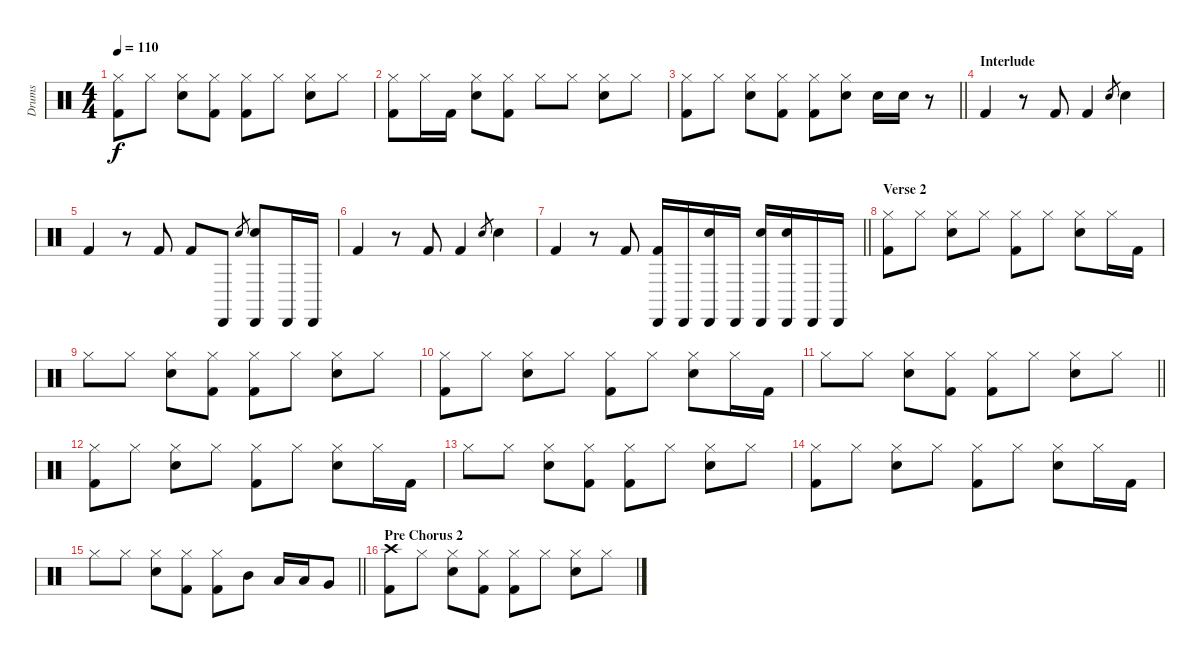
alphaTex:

\track ("Drums" "Drums") {instrument percussion}
\staff {score}
\articulation defaults
\ts (4 4)
\tempo 110
\clef neutral
\ks c
("Hi-Hat (closed)" "Kick (hit) 2").8{dy f} "Hi-Hat (closed)".8 ("Hi-Hat (closed)" "Snare (hit) 2").8 ("Hi-Hat (closed)" "Kick (hit) 2").8 ("Hi-Hat (closed)" "Kick (hit) 2").8 "Hi-Hat (closed)".8 ("Hi-Hat (closed)" "Snare (hit) 2").8 "Hi-Hat (closed)".8 |
("Hi-Hat (closed)" "Kick (hit) 2").8 "Hi-Hat (closed)".16 "Kick (hit) 2".16 ("Hi-Hat (closed)" "Snare (hit) 2").8 ("Hi-Hat (closed)" "Kick (hit) 2").8 "Hi-Hat (closed)".8 "Hi-Hat (closed)".8 ("Hi-Hat (closed)" "Snare (hit) 2").8 "Hi-Hat (closed)".8 |
\barLineRight lightlight
("Hi-Hat (closed)" "Kick (hit) 2").8 "Hi-Hat (closed)".8 ("Hi-Hat (closed)" "Snare (hit) 2").8 ("Hi-Hat (closed)" "Kick (hit) 2").8 ("Hi-Hat (closed)" "Kick (hit) 2").8 ("Hi-Hat (closed)" "Snare (hit) 2").8 "Snare (hit) 2".16 "Snare (hit) 2".16 r.8 |
\section ("" "Interlude")
"Kick (hit) 2".4 r.8 "Kick (hit) 2".8 "Kick (hit) 2".4 "Snare (hit) 2".8{gr} "Snare (hit) 2".4 |
"Kick (hit) 2".4 r.8 "Kick (hit) 2".8 "Kick (hit) 2".8 "Cabasa (hit)".8 "Snare (hit) 2".8{gr} ("Cabasa (hit)" "Snare (hit) 2").8 "Cabasa (hit)".16 "Cabasa (hit)".16 |
"Kick (hit) 2".4 r.8 "Kick (hit) 2".8 "Kick (hit) 2".4 "Snare (hit) 2".8{gr} "Snare (hit) 2".4 |
\barLineRight lightlight "Kick (hit) 2".4
r.8 "Kick (hit) 2".8 ("Cabasa (hit)" "Kick (hit) 2").16 "Cabasa (hit)".16 ("Cabasa (hit)" "Snare (hit) 2").16 "Cabasa (hit)".16 ("Cabasa (hit)" "Snare (hit) 2").16 ("Cabasa (hit)" "Snare (hit) 2").16 "Cabasa (hit)".16 "Cabasa (hit)".16 |
\section ("" "Verse 2")
("Hi-Hat (closed)" "Kick (hit) 2").8 "Hi-Hat (closed)".8 ("Hi-Hat (closed)" "Snare (hit) 2").8 "Hi-Hat (closed)".8 ("Hi-Hat (closed)" "Kick (hit) 2").8 "Hi-Hat (closed)".8 ("Hi-Hat (closed)" "Snare (hit) 2").8 "Hi-Hat (closed)".16 "Kick (hit) 2".16 |
"Hi-Hat (closed)".8 "Hi-Hat (closed)".8 ("Hi-Hat (closed)" "Snare (hit) 2").8 ("Hi-Hat (closed)" "Kick (hit) 2").8 ("Hi-Hat (closed)" "Kick (hit) 2").8 "Hi-Hat (closed)".8 ("Hi-Hat (closed)" "Snare (hit) 2").8 "Hi-Hat (closed)".8 |
("Hi-Hat (closed)" "Kick (hit) 2").8 "Hi-Hat (closed)".8 ("Hi-Hat (closed)" "Snare (hit) 2").8 "Hi-Hat (closed)".8 ("Hi-Hat (closed)" "Kick (hit) 2").8 "Hi-Hat (closed)".8 ("Hi-Hat (closed)" "Snare (hit) 2").8 "Hi-Hat (closed)".16 "Kick (hit) 2".16 |
\barLineRight lightlight "Hi-Hat (closed)".8 "Hi-Hat (closed)".8
("Hi-Hat (closed)" "Snare (hit) 2").8 ("Hi-Hat (closed)" "Kick (hit) 2").8 ("Hi-Hat (closed)" "Kick (hit) 2").8 "Hi-Hat (closed)".8 ("Hi-Hat (closed)" "Snare (hit) 2").8 "Hi-Hat (closed)".8 |
("Hi-Hat (closed)" "Kick (hit) 2").8 "Hi-Hat (closed)".8 ("Hi-Hat (closed)" "Snare (hit) 2").8 "Hi-Hat (closed)".8 ("Hi-Hat (closed)" "Kick (hit) 2").8 "Hi-Hat (closed)".8 ("Hi-Hat (closed)" "Snare (hit) 2").8 "Hi-Hat (closed)".16 "Kick (hit) 2".16 |
"Hi-Hat (closed)".8 "Hi-Hat (closed)".8 ("Hi-Hat (closed)" "Snare (hit) 2").8 ("Hi-Hat (closed)" "Kick (hit) 2").8 ("Hi-Hat (closed)" "Kick (hit) 2").8 "Hi-Hat (closed)".8 ("Hi-Hat (closed)" "Snare (hit) 2").8 "Hi-Hat (closed)".8 |
("Hi-Hat (closed)" "Kick (hit) 2").8 "Hi-Hat (closed)".8 ("Hi-Hat (closed)" "Snare (hit) 2").8 "Hi-Hat (closed)".8 ("Hi-Hat (closed)" "Kick (hit) 2").8 "Hi-Hat (closed)".8 ("Hi-Hat (closed)" "Snare (hit) 2").8 "Hi-Hat (closed)".16 "Kick (hit) 2".16 |
\barLineRight lightlight "Hi-Hat (closed)".8 "Hi-Hat (closed)".8
("Hi-Hat (closed)" "Snare (hit) 2").8 ("Hi-Hat (closed)" "Kick (hit) 2").8 ("Hi-Hat (closed)" "Kick (hit) 2").8 "Mid Tom (hit)".8 "Low Tom (hit)".16 "Low Tom (hit)".16 "Very Low Tom (hit)".8 |
\section ("" "Pre Chorus 2")
("Crash high (hit)" "Kick (hit) 2").8 "Hi-Hat (closed)".8 ("Hi-Hat (closed)" "Snare (hit) 2").8 ("Hi-Hat (closed)" "Kick (hit) 2").8 ("Hi-Hat (closed)" "Kick (hit) 2").8 "Hi-Hat (closed)".8 ("Hi-Hat (closed)" "Snare (hit) 2").8 "Hi-Hat (closed)".8
